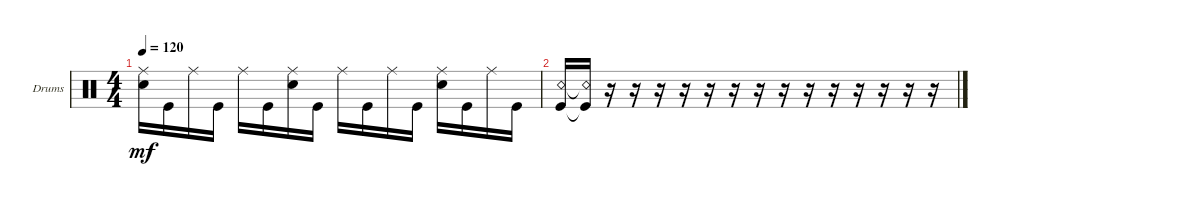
\defaultSystemsLayout 4
\bracketExtendMode groupsimilarinstruments
\firstSystemTrackNameOrientation horizontal
\otherSystemsTrackNameOrientation horizontal
\track ("Drumkit" "Drums") {instrument percussion}
\staff {score}
\articulation defaults
\ts (4 4)
\tempo 120
\clef neutral
\ks c
("Snare (hit) 2" "Ride (middle)").16{dy mf} "Kick (hit)".16 "Ride (middle)".16 "Kick (hit)".16 "Ride (middle)".16 "Kick (hit)".16 ("Snare (hit) 2" "Ride (middle)").16 "Kick (hit)".16 "Ride (middle)".16 "Kick (hit)".16 "Ride (middle)".16 "Kick (hit)".16 ("Snare (hit) 2" "Ride (middle)").16 "Kick (hit)".16 "Ride (middle)".16 "Kick (hit)".16 |
("Snare (rim shot)" "Kick (hit)").16 ("Snare (rim shot)"{t} "Kick (hit)"{t}).16 r.16 r.16 r.16 r.16 r.16 r.16 r.16 r.16 r.16 r.16 r.16 r.16 r.16 r.16
